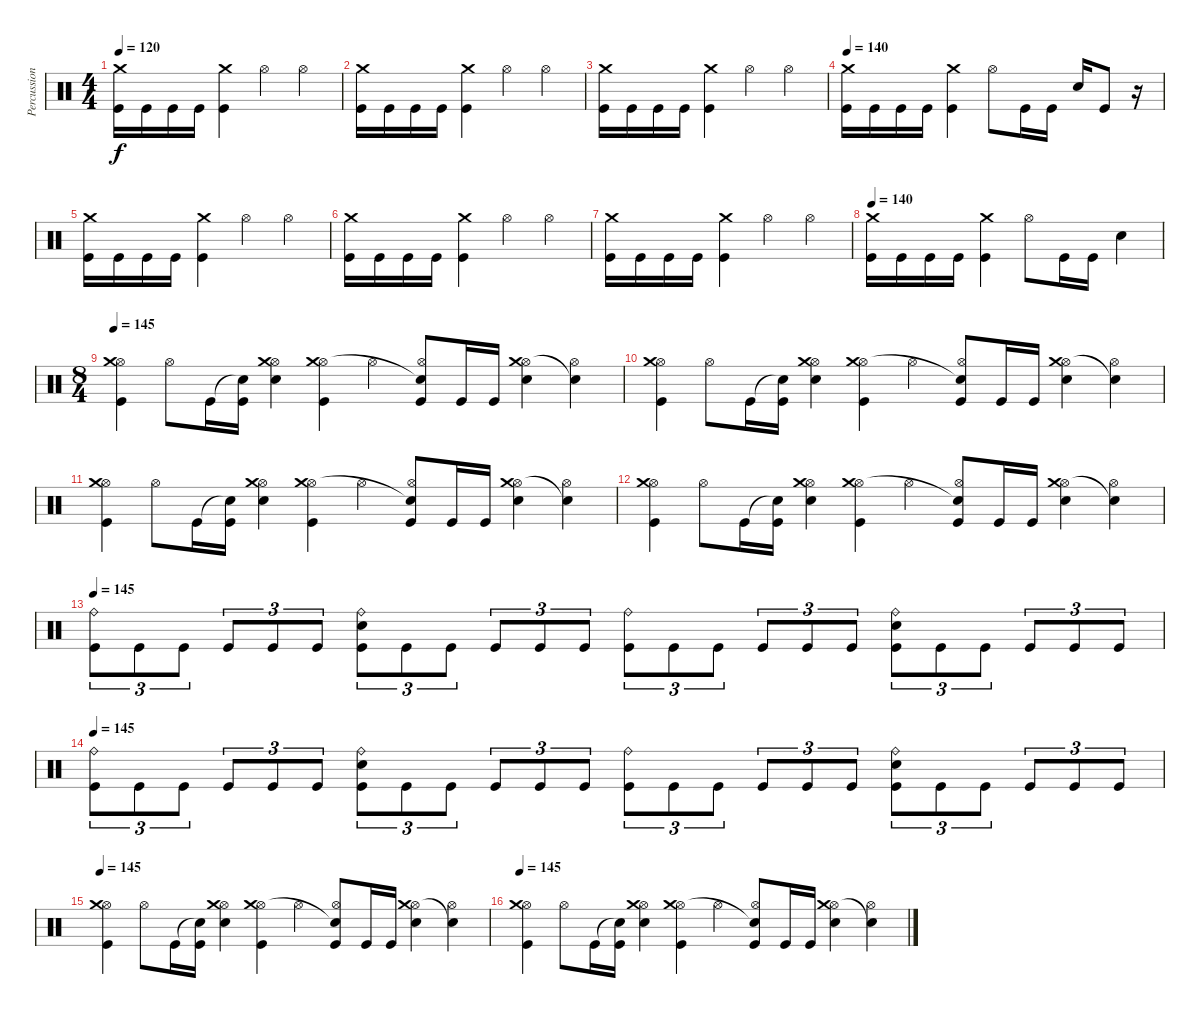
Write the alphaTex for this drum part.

\track ("Percussion" "Percussion") {instrument percussion}
\staff {score}
\articulation defaults
\ts (4 4)
\tempo 120
\tempo 140
\tempo 120
\clef neutral
\ks c
("Crash medium (hit)" "Kick (hit)").16{dy f} "Kick (hit)".16 "Kick (hit)".16 "Kick (hit)".16 ("Crash medium (hit)" "Kick (hit)").4 "Hi-Hat (open)".4 "Hi-Hat (open)".4 |
("Crash medium (hit)" "Kick (hit)").16 "Kick (hit)".16 "Kick (hit)".16 "Kick (hit)".16 ("Crash medium (hit)" "Kick (hit)").4 "Hi-Hat (open)".4 "Hi-Hat (open)".4 |
("Crash medium (hit)" "Kick (hit)").16 "Kick (hit)".16 "Kick (hit)".16 "Kick (hit)".16 ("Crash medium (hit)" "Kick (hit)").4 "Hi-Hat (open)".4 "Hi-Hat (open)".4 |
\tempo 140
("Crash medium (hit)" "Kick (hit)").16 "Kick (hit)".16 "Kick (hit)".16 "Kick (hit)".16 ("Crash medium (hit)" "Kick (hit)").4 "Hi-Hat (open)".8 "Kick (hit)".16 "Kick (hit)".16 "Electric Snare (hit)".16 "Kick (hit)".8 r.16 |
("Crash medium (hit)" "Kick (hit)").16 "Kick (hit)".16 "Kick (hit)".16 "Kick (hit)".16 ("Crash medium (hit)" "Kick (hit)").4 "Hi-Hat (open)".4 "Hi-Hat (open)".4 |
("Crash medium (hit)" "Kick (hit)").16 "Kick (hit)".16 "Kick (hit)".16 "Kick (hit)".16 ("Crash medium (hit)" "Kick (hit)").4 "Hi-Hat (open)".4 "Hi-Hat (open)".4 |
("Crash medium (hit)" "Kick (hit)").16 "Kick (hit)".16 "Kick (hit)".16 "Kick (hit)".16 ("Crash medium (hit)" "Kick (hit)").4 "Hi-Hat (open)".4 "Hi-Hat (open)".4 |
\tempo 140
("Crash medium (hit)" "Kick (hit)").16 "Kick (hit)".16 "Kick (hit)".16 "Kick (hit)".16 ("Crash medium (hit)" "Kick (hit)").4 "Hi-Hat (open)".8 "Kick (hit)".16 "Kick (hit)".16 "Electric Snare (hit)".4 |
\ts (8 4)
\tempo 145
("Hi-Hat (open)" "Crash medium (hit)" "Kick (hit)").4 "Hi-Hat (open)".8 "Kick (hit)".16 ("Snare (hit)"{t} "Kick (hit)").16 ("Hi-Hat (open)" "Crash medium (hit)" "Electric Snare (hit)").4 ("Hi-Hat (open)" "Crash medium (hit)" "Kick (hit)").4 "Hi-Hat (open)".4 ("Hi-Hat (open)" "Snare (hit)"{t} "Kick (hit)").8 "Kick (hit)".16 "Kick (hit)".16 ("Hi-Hat (open)" "Crash medium (hit)" "Electric Snare (hit)").4 ("Hi-Hat (open)" "Snare (hit)"{t}).4 |
("Hi-Hat (open)" "Crash medium (hit)" "Kick (hit)").4 "Hi-Hat (open)".8 "Kick (hit)".16 ("Snare (hit)"{t} "Kick (hit)").16 ("Hi-Hat (open)" "Crash medium (hit)" "Electric Snare (hit)").4 ("Hi-Hat (open)" "Crash medium (hit)" "Kick (hit)").4 "Hi-Hat (open)".4 ("Hi-Hat (open)" "Snare (hit)"{t} "Kick (hit)").8 "Kick (hit)".16 "Kick (hit)".16 ("Hi-Hat (open)" "Crash medium (hit)" "Electric Snare (hit)").4 ("Hi-Hat (open)" "Snare (hit)"{t}).4 |
("Hi-Hat (open)" "Crash medium (hit)" "Kick (hit)").4 "Hi-Hat (open)".8 "Kick (hit)".16 ("Snare (hit)"{t} "Kick (hit)").16 ("Hi-Hat (open)" "Crash medium (hit)" "Electric Snare (hit)").4 ("Hi-Hat (open)" "Crash medium (hit)" "Kick (hit)").4 "Hi-Hat (open)".4 ("Hi-Hat (open)" "Snare (hit)"{t} "Kick (hit)").8 "Kick (hit)".16 "Kick (hit)".16 ("Hi-Hat (open)" "Crash medium (hit)" "Electric Snare (hit)").4 ("Hi-Hat (open)" "Snare (hit)"{t}).4 |
("Hi-Hat (open)" "Crash medium (hit)" "Kick (hit)").4 "Hi-Hat (open)".8 "Kick (hit)".16 ("Snare (hit)"{t} "Kick (hit)").16 ("Hi-Hat (open)" "Crash medium (hit)" "Electric Snare (hit)").4 ("Hi-Hat (open)" "Crash medium (hit)" "Kick (hit)").4 "Hi-Hat (open)".4 ("Hi-Hat (open)" "Snare (hit)"{t} "Kick (hit)").8 "Kick (hit)".16 "Kick (hit)".16 ("Hi-Hat (open)" "Crash medium (hit)" "Electric Snare (hit)").4 ("Hi-Hat (open)" "Snare (hit)"{t}).4 |
\tempo 145
("Ride (bell)" "Kick (hit)").8{tu (3 2)} "Kick (hit)".8{tu (3 2)} "Kick (hit)".8{tu (3 2)} "Kick (hit)".8{tu (3 2)} "Kick (hit)".8{tu (3 2)} "Kick (hit)".8{tu (3 2)} ("Ride (bell)" "Electric Snare (hit)" "Kick (hit)").8{tu (3 2)} "Kick (hit)".8{tu (3 2)} "Kick (hit)".8{tu (3 2)} "Kick (hit)".8{tu (3 2)} "Kick (hit)".8{tu (3 2)} "Kick (hit)".8{tu (3 2)} ("Ride (bell)" "Kick (hit)").8{tu (3 2)} "Kick (hit)".8{tu (3 2)} "Kick (hit)".8{tu (3 2)} "Kick (hit)".8{tu (3 2)} "Kick (hit)".8{tu (3 2)} "Kick (hit)".8{tu (3 2)} ("Ride (bell)" "Electric Snare (hit)" "Kick (hit)").8{tu (3 2)} "Kick (hit)".8{tu (3 2)} "Kick (hit)".8{tu (3 2)} "Kick (hit)".8{tu (3 2)} "Kick (hit)".8{tu (3 2)} "Kick (hit)".8{tu (3 2)} |
\tempo 145
("Ride (bell)" "Kick (hit)").8{tu (3 2)} "Kick (hit)".8{tu (3 2)} "Kick (hit)".8{tu (3 2)} "Kick (hit)".8{tu (3 2)} "Kick (hit)".8{tu (3 2)} "Kick (hit)".8{tu (3 2)} ("Ride (bell)" "Electric Snare (hit)" "Kick (hit)").8{tu (3 2)} "Kick (hit)".8{tu (3 2)} "Kick (hit)".8{tu (3 2)} "Kick (hit)".8{tu (3 2)} "Kick (hit)".8{tu (3 2)} "Kick (hit)".8{tu (3 2)} ("Ride (bell)" "Kick (hit)").8{tu (3 2)} "Kick (hit)".8{tu (3 2)} "Kick (hit)".8{tu (3 2)} "Kick (hit)".8{tu (3 2)} "Kick (hit)".8{tu (3 2)} "Kick (hit)".8{tu (3 2)} ("Ride (bell)" "Electric Snare (hit)" "Kick (hit)").8{tu (3 2)} "Kick (hit)".8{tu (3 2)} "Kick (hit)".8{tu (3 2)} "Kick (hit)".8{tu (3 2)} "Kick (hit)".8{tu (3 2)} "Kick (hit)".8{tu (3 2)} |
\tempo 145
("Hi-Hat (open)" "Crash medium (hit)" "Kick (hit)").4 "Hi-Hat (open)".8 "Kick (hit)".16 ("Snare (hit)"{t} "Kick (hit)").16 ("Hi-Hat (open)" "Crash medium (hit)" "Electric Snare (hit)").4 ("Hi-Hat (open)" "Crash medium (hit)" "Kick (hit)").4 "Hi-Hat (open)".4 ("Hi-Hat (open)" "Snare (hit)"{t} "Kick (hit)").8 "Kick (hit)".16 "Kick (hit)".16 ("Hi-Hat (open)" "Crash medium (hit)" "Electric Snare (hit)").4 ("Hi-Hat (open)" "Snare (hit)"{t}).4 |
\tempo 145
("Hi-Hat (open)" "Crash medium (hit)" "Kick (hit)").4 "Hi-Hat (open)".8 "Kick (hit)".16 ("Snare (hit)"{t} "Kick (hit)").16 ("Hi-Hat (open)" "Crash medium (hit)" "Electric Snare (hit)").4 ("Hi-Hat (open)" "Crash medium (hit)" "Kick (hit)").4 "Hi-Hat (open)".4 ("Hi-Hat (open)" "Snare (hit)"{t} "Kick (hit)").8 "Kick (hit)".16 "Kick (hit)".16 ("Hi-Hat (open)" "Crash medium (hit)" "Electric Snare (hit)").4 ("Hi-Hat (open)" "Snare (hit)"{t}).4
